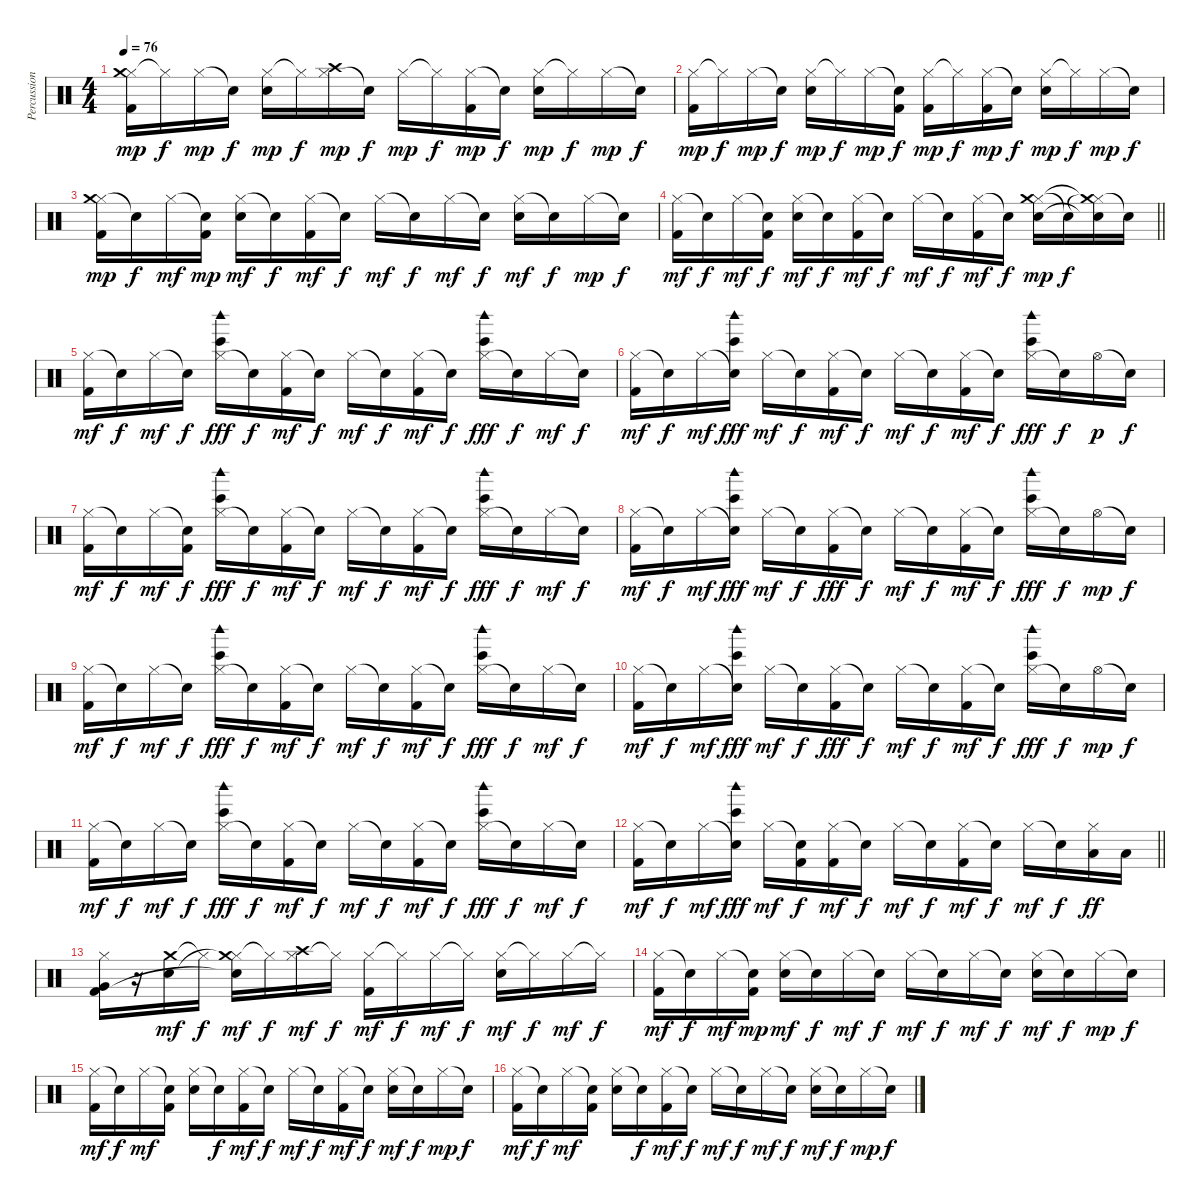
\track ("Percussion" "Percussion") {instrument percussion}
\staff {score}
\articulation defaults
\ts (4 4)
\tempo 76
\clef neutral
\ks c
("Hi-Hat (closed)" "Crash medium (hit)" "Kick (hit) 2").16{dy mp} "Hi-Hat (closed)"{t}.16{dy f} "Hi-Hat (closed)".16{dy mp} "Snare (hit)"{t}.16{dy f} ("Hi-Hat (closed)" "Electric Snare (hit)").16{dy mp} "Hi-Hat (closed)"{t}.16{dy f} ("Hi-Hat (closed)" "Crash high (hit)").16{dy mp} "Snare (hit)"{t}.16{dy f} "Hi-Hat (closed)".16{dy mp} "Hi-Hat (closed)"{t}.16{dy f} ("Hi-Hat (closed)" "Kick (hit) 2").16{dy mp} "Snare (hit)"{t}.16{dy f} ("Hi-Hat (closed)" "Electric Snare (hit)").16{dy mp} "Hi-Hat (closed)"{t}.16{dy f} "Hi-Hat (closed)".16{dy mp} "Snare (hit)"{t}.16{dy f} |
("Hi-Hat (closed)" "Kick (hit) 2").16{dy mp} "Hi-Hat (closed)"{t}.16{dy f} "Hi-Hat (closed)".16{dy mp} "Snare (hit)"{t}.16{dy f} ("Hi-Hat (closed)" "Electric Snare (hit)").16{dy mp} "Hi-Hat (closed)"{t}.16{dy f} "Hi-Hat (closed)".16{dy mp} ("Snare (hit)"{t} "Kick (hit) 2").16{dy f} ("Hi-Hat (closed)" "Kick (hit) 2").16{dy mp} "Hi-Hat (closed)"{t}.16{dy f} ("Hi-Hat (closed)" "Kick (hit) 2").16{dy mp} "Snare (hit)"{t}.16{dy f} ("Hi-Hat (closed)" "Electric Snare (hit)").16{dy mp} "Hi-Hat (closed)"{t}.16{dy f} "Hi-Hat (closed)".16{dy mp} "Snare (hit)"{t}.16{dy f} |
("Hi-Hat (closed)" "Crash medium (hit)" "Kick (hit) 2").16{dy mp} "Snare (hit)"{t}.16{dy f} "Hi-Hat (closed)".16{dy mf} ("Snare (hit)"{t} "Kick (hit) 2").16{dy mp} ("Hi-Hat (closed)" "Electric Snare (hit)").16{dy mf} "Snare (hit)"{t}.16{dy f} ("Hi-Hat (closed)" "Kick (hit) 2").16{dy mf} "Snare (hit)"{t}.16{dy f} "Hi-Hat (closed)".16{dy mf} "Snare (hit)"{t}.16{dy f} "Hi-Hat (closed)".16{dy mf} "Snare (hit)"{t}.16{dy f} ("Hi-Hat (closed)" "Electric Snare (hit)").16{dy mf} "Snare (hit)"{t}.16{dy f} "Hi-Hat (closed)".16{dy mp} "Snare (hit)"{t}.16{dy f} |
\barLineRight lightlight
("Hi-Hat (closed)" "Kick (hit) 2").16{dy mf} "Snare (hit)"{t}.16{dy f} "Hi-Hat (closed)".16{dy mf} ("Snare (hit)"{t} "Kick (hit) 2").16{dy f} ("Hi-Hat (closed)" "Electric Snare (hit)").16{dy mf} "Snare (hit)"{t}.16{dy f} ("Hi-Hat (closed)" "Kick (hit) 2").16{dy mf} "Snare (hit)"{t}.16{dy f} "Hi-Hat (closed)".16{dy mf} "Snare (hit)"{t}.16{dy f} ("Hi-Hat (closed)" "Kick (hit) 2").16{dy mf} "Snare (hit)"{t}.16{dy f} ("Hi-Hat (closed)" "Crash medium (hit)" "Electric Snare (hit)").16{dy mp} "Snare (hit)"{t}.16{dy f} ("Hi-Hat (closed)"{t} "Crash medium (hit)"{t} "Electric Snare (hit)"{t}).16 "Snare (hit)"{t}.16 |
("Hi-Hat (closed)" "Kick (hit) 2").16{dy mf} "Snare (hit)"{t}.16{dy f} "Hi-Hat (closed)".16{dy mf} "Snare (hit)"{t}.16{dy f} ("Hi-Hat (closed)" "Woodblock high (hit)" "Bongo High (hit)").16{dy fff} "Snare (hit)"{t}.16{dy f} ("Hi-Hat (closed)" "Kick (hit) 2").16{dy mf} "Snare (hit)"{t}.16{dy f} "Hi-Hat (closed)".16{dy mf} "Snare (hit)"{t}.16{dy f} ("Hi-Hat (closed)" "Kick (hit) 2").16{dy mf} "Snare (hit)"{t}.16{dy f} ("Hi-Hat (closed)" "Woodblock high (hit)" "Bongo High (hit)").16{dy fff} "Snare (hit)"{t}.16{dy f} "Hi-Hat (closed)".16{dy mf} "Snare (hit)"{t}.16{dy f} |
("Hi-Hat (closed)" "Kick (hit) 2").16{dy mf} "Snare (hit)"{t}.16{dy f} "Hi-Hat (closed)".16{dy mf} ("Snare (hit)"{t} "Woodblock high (hit)" "Bongo High (hit)").16{dy fff} "Hi-Hat (closed)".16{dy mf} "Snare (hit)"{t}.16{dy f} ("Hi-Hat (closed)" "Kick (hit) 2").16{dy mf} "Snare (hit)"{t}.16{dy f} "Hi-Hat (closed)".16{dy mf} "Snare (hit)"{t}.16{dy f} ("Hi-Hat (closed)" "Kick (hit) 2").16{dy mf} "Snare (hit)"{t}.16{dy f} ("Hi-Hat (closed)" "Woodblock high (hit)" "Bongo High (hit)").16{dy fff} "Snare (hit)"{t}.16{dy f} "Hi-Hat (open)".16{dy p} "Snare (hit)"{t}.16{dy f} |
("Hi-Hat (closed)" "Kick (hit) 2").16{dy mf} "Snare (hit)"{t}.16{dy f} "Hi-Hat (closed)".16{dy mf} ("Snare (hit)"{t} "Kick (hit) 2").16{dy f} ("Hi-Hat (closed)" "Woodblock high (hit)" "Bongo High (hit)").16{dy fff} "Snare (hit)"{t}.16{dy f} ("Hi-Hat (closed)" "Kick (hit) 2").16{dy mf} "Snare (hit)"{t}.16{dy f} "Hi-Hat (closed)".16{dy mf} "Snare (hit)"{t}.16{dy f} ("Hi-Hat (closed)" "Kick (hit) 2").16{dy mf} "Snare (hit)"{t}.16{dy f} ("Hi-Hat (closed)" "Woodblock high (hit)" "Bongo High (hit)").16{dy fff} "Snare (hit)"{t}.16{dy f} "Hi-Hat (closed)".16{dy mf} "Snare (hit)"{t}.16{dy f} |
("Hi-Hat (closed)" "Kick (hit) 2").16{dy mf} "Snare (hit)"{t}.16{dy f} "Hi-Hat (closed)".16{dy mf} ("Snare (hit)"{t} "Woodblock high (hit)" "Bongo High (hit)").16{dy fff} "Hi-Hat (closed)".16{dy mf} "Snare (hit)"{t}.16{dy f} ("Hi-Hat (closed)" "Kick (hit) 2").16{dy fff} "Snare (hit)"{t}.16{dy f} "Hi-Hat (closed)".16{dy mf} "Snare (hit)"{t}.16{dy f} ("Hi-Hat (closed)" "Kick (hit) 2").16{dy mf} "Snare (hit)"{t}.16{dy f} ("Hi-Hat (closed)" "Woodblock high (hit)" "Bongo High (hit)").16{dy fff} "Snare (hit)"{t}.16{dy f} "Hi-Hat (open)".16{dy mp} "Snare (hit)"{t}.16{dy f} |
("Hi-Hat (closed)" "Kick (hit) 2").16{dy mf} "Snare (hit)"{t}.16{dy f} "Hi-Hat (closed)".16{dy mf} "Snare (hit)"{t}.16{dy f} ("Hi-Hat (closed)" "Woodblock high (hit)" "Bongo High (hit)").16{dy fff} "Snare (hit)"{t}.16{dy f} ("Hi-Hat (closed)" "Kick (hit) 2").16{dy mf} "Snare (hit)"{t}.16{dy f} "Hi-Hat (closed)".16{dy mf} "Snare (hit)"{t}.16{dy f} ("Hi-Hat (closed)" "Kick (hit) 2").16{dy mf} "Snare (hit)"{t}.16{dy f} ("Hi-Hat (closed)" "Woodblock high (hit)" "Bongo High (hit)").16{dy fff} "Snare (hit)"{t}.16{dy f} "Hi-Hat (closed)".16{dy mf} "Snare (hit)"{t}.16{dy f} |
("Hi-Hat (closed)" "Kick (hit) 2").16{dy mf} "Snare (hit)"{t}.16{dy f} "Hi-Hat (closed)".16{dy mf} ("Snare (hit)"{t} "Woodblock high (hit)" "Bongo High (hit)").16{dy fff} "Hi-Hat (closed)".16{dy mf} "Snare (hit)"{t}.16{dy f} ("Hi-Hat (closed)" "Kick (hit) 2").16{dy fff} "Snare (hit)"{t}.16{dy f} "Hi-Hat (closed)".16{dy mf} "Snare (hit)"{t}.16{dy f} ("Hi-Hat (closed)" "Kick (hit) 2").16{dy mf} "Snare (hit)"{t}.16{dy f} ("Hi-Hat (closed)" "Woodblock high (hit)" "Bongo High (hit)").16{dy fff} "Snare (hit)"{t}.16{dy f} "Hi-Hat (open)".16{dy mp} "Snare (hit)"{t}.16{dy f} |
("Hi-Hat (closed)" "Kick (hit) 2").16{dy mf} "Snare (hit)"{t}.16{dy f} "Hi-Hat (closed)".16{dy mf} "Snare (hit)"{t}.16{dy f} ("Hi-Hat (closed)" "Woodblock high (hit)" "Bongo High (hit)").16{dy fff} "Snare (hit)"{t}.16{dy f} ("Hi-Hat (closed)" "Kick (hit) 2").16{dy mf} "Snare (hit)"{t}.16{dy f} "Hi-Hat (closed)".16{dy mf} "Snare (hit)"{t}.16{dy f} ("Hi-Hat (closed)" "Kick (hit) 2").16{dy mf} "Snare (hit)"{t}.16{dy f} ("Hi-Hat (closed)" "Woodblock high (hit)" "Bongo High (hit)").16{dy fff} "Snare (hit)"{t}.16{dy f} "Hi-Hat (closed)".16{dy mf} "Snare (hit)"{t}.16{dy f} |
\barLineRight lightlight
("Hi-Hat (closed)" "Kick (hit) 2").16{dy mf} "Snare (hit)"{t}.16{dy f} "Hi-Hat (closed)".16{dy mf} ("Snare (hit)"{t} "Woodblock high (hit)" "Bongo High (hit)").16{dy fff} "Hi-Hat (closed)".16{dy mf} ("Snare (hit)"{t} "Kick (hit) 2").16{dy f} ("Hi-Hat (closed)" "Kick (hit) 2").16{dy mf} "Snare (hit)"{t}.16{dy f} "Hi-Hat (closed)".16{dy mf} "Snare (hit)"{t}.16{dy f} ("Hi-Hat (closed)" "Kick (hit) 2").16{dy mf} "Snare (hit)"{t}.16{dy f} "Hi-Hat (closed)".16{dy mf} "Snare (hit)"{t}.16{dy f} ("Hi-Hat (closed)" "Low Tom (hit)").16{dy ff} "Low Tom (hit)".16 |
("Hi-Hat (closed)" "Very Low Tom (hit)" "Kick (hit) 2").16 r.16 ("Crash medium (hit)" "Electric Snare (hit)").16{dy mf} "Hi-Hat (closed)"{t}.16{dy f} ("Hi-Hat (closed)" "Crash medium (hit)"{t} "Electric Snare (hit)"{t}).16{dy mf} "Hi-Hat (closed)"{t}.16{dy f} ("Hi-Hat (closed)" "Crash high (hit)").16{dy mf} "Hi-Hat (closed)"{t}.16{dy f} ("Hi-Hat (closed)" "Kick (hit) 2").16{dy mf} "Hi-Hat (closed)"{t}.16{dy f} "Hi-Hat (closed)".16{dy mf} "Hi-Hat (closed)"{t}.16{dy f} ("Hi-Hat (closed)" "Electric Snare (hit)").16{dy mf} "Hi-Hat (closed)"{t}.16{dy f} "Hi-Hat (closed)".16{dy mf} "Hi-Hat (closed)"{t}.16{dy f} |
("Hi-Hat (closed)" "Kick (hit) 2").16{dy mf} "Snare (hit)"{t}.16{dy f} "Hi-Hat (closed)".16{dy mf} ("Snare (hit)"{t} "Kick (hit) 2").16{dy mp} ("Hi-Hat (closed)" "Electric Snare (hit)").16{dy mf} "Snare (hit)"{t}.16{dy f} "Hi-Hat (closed)".16{dy mf} "Snare (hit)"{t}.16{dy f} "Hi-Hat (closed)".16{dy mf} "Snare (hit)"{t}.16{dy f} "Hi-Hat (closed)".16{dy mf} "Snare (hit)"{t}.16{dy f} ("Hi-Hat (closed)" "Electric Snare (hit)").16{dy mf} "Snare (hit)"{t}.16{dy f} "Hi-Hat (closed)".16{dy mp} "Snare (hit)"{t}.16{dy f} |
("Hi-Hat (closed)" "Kick (hit) 2").16{dy mf} "Snare (hit)"{t}.16{dy f} "Hi-Hat (closed)".16{dy mf} ("Snare (hit)"{t} "Kick (hit) 2").16 ("Hi-Hat (closed)" "Electric Snare (hit)").16 "Snare (hit)"{t}.16{dy f} ("Hi-Hat (closed)" "Kick (hit) 2").16{dy mf} "Snare (hit)"{t}.16{dy f} "Hi-Hat (closed)".16{dy mf} "Snare (hit)"{t}.16{dy f} ("Hi-Hat (closed)" "Kick (hit) 2").16{dy mf} "Snare (hit)"{t}.16{dy f} ("Hi-Hat (closed)" "Electric Snare (hit)").16{dy mf} "Snare (hit)"{t}.16{dy f} "Hi-Hat (closed)".16{dy mp} "Snare (hit)"{t}.16{dy f} |
("Hi-Hat (closed)" "Kick (hit) 2").16{dy mf} "Snare (hit)"{t}.16{dy f} "Hi-Hat (closed)".16{dy mf} ("Snare (hit)"{t} "Kick (hit) 2").16 ("Hi-Hat (closed)" "Electric Snare (hit)").16 "Snare (hit)"{t}.16{dy f} ("Hi-Hat (closed)" "Kick (hit) 2").16{dy mf} "Snare (hit)"{t}.16{dy f} "Hi-Hat (closed)".16{dy mf} "Snare (hit)"{t}.16{dy f} "Hi-Hat (closed)".16{dy mf} "Snare (hit)"{t}.16{dy f} ("Hi-Hat (closed)" "Electric Snare (hit)").16{dy mf} "Snare (hit)"{t}.16{dy f} "Hi-Hat (closed)".16{dy mp} "Snare (hit)"{t}.16{dy f}
